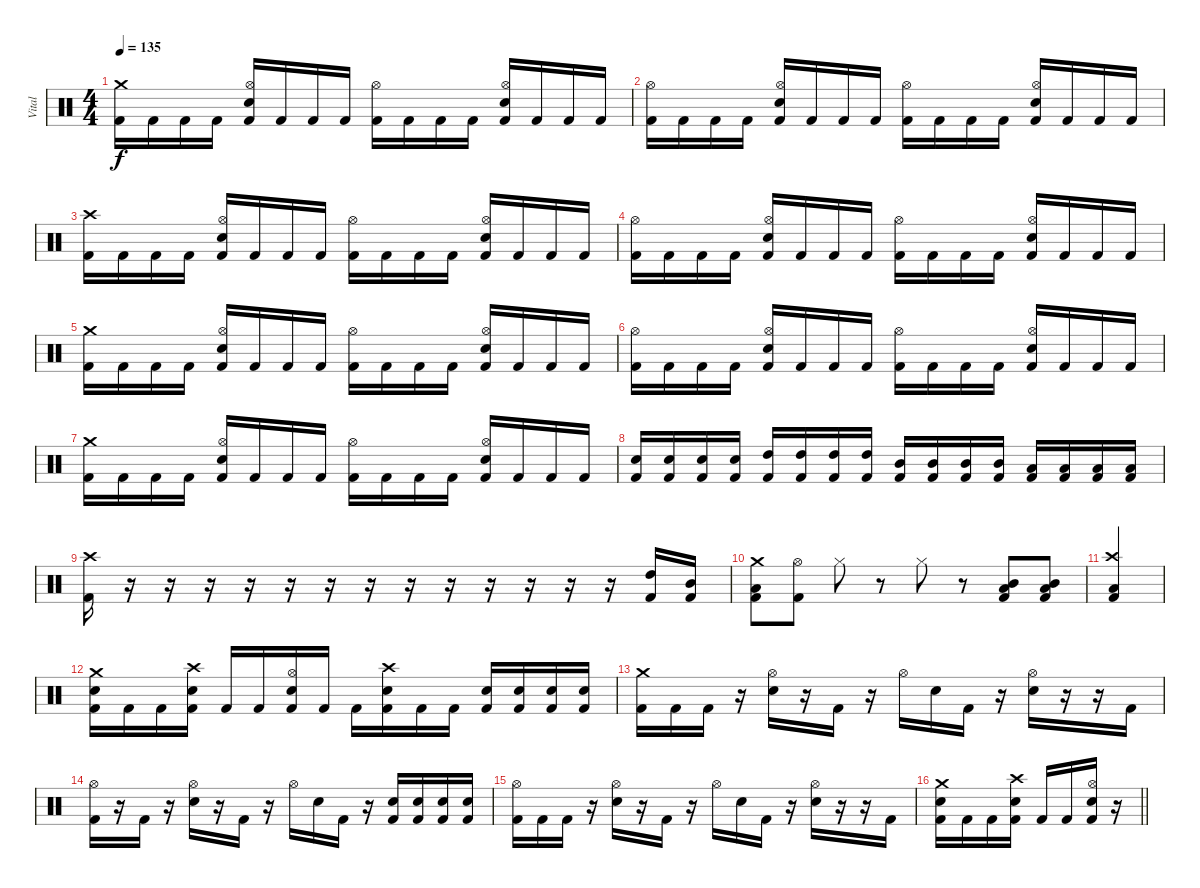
\track ("Vital" "Vital") {instrument percussion}
\staff {score}
\articulation defaults
\ts (4 4)
\tempo 135
\clef neutral
\ks c
("Crash medium (hit)" "Kick (hit) 2").16{dy f} "Kick (hit) 2".16 "Kick (hit) 2".16 "Kick (hit) 2".16 ("Hi-Hat (open)" "Snare (hit) 2" "Kick (hit) 2").16 "Kick (hit) 2".16 "Kick (hit) 2".16 "Kick (hit) 2".16 ("Hi-Hat (open)" "Kick (hit) 2").16 "Kick (hit) 2".16 "Kick (hit) 2".16 "Kick (hit) 2".16 ("Hi-Hat (open)" "Snare (hit) 2" "Kick (hit) 2").16 "Kick (hit) 2".16 "Kick (hit) 2".16 "Kick (hit) 2".16 |
("Hi-Hat (open)" "Kick (hit) 2").16 "Kick (hit) 2".16 "Kick (hit) 2".16 "Kick (hit) 2".16 ("Hi-Hat (open)" "Snare (hit) 2" "Kick (hit) 2").16 "Kick (hit) 2".16 "Kick (hit) 2".16 "Kick (hit) 2".16 ("Hi-Hat (open)" "Kick (hit) 2").16 "Kick (hit) 2".16 "Kick (hit) 2".16 "Kick (hit) 2".16 ("Hi-Hat (open)" "Snare (hit) 2" "Kick (hit) 2").16 "Kick (hit) 2".16 "Kick (hit) 2".16 "Kick (hit) 2".16 |
("Crash high (hit)" "Kick (hit) 2").16 "Kick (hit) 2".16 "Kick (hit) 2".16 "Kick (hit) 2".16 ("Hi-Hat (open)" "Snare (hit) 2" "Kick (hit) 2").16 "Kick (hit) 2".16 "Kick (hit) 2".16 "Kick (hit) 2".16 ("Hi-Hat (open)" "Kick (hit) 2").16 "Kick (hit) 2".16 "Kick (hit) 2".16 "Kick (hit) 2".16 ("Hi-Hat (open)" "Snare (hit) 2" "Kick (hit) 2").16 "Kick (hit) 2".16 "Kick (hit) 2".16 "Kick (hit) 2".16 |
("Hi-Hat (open)" "Kick (hit) 2").16 "Kick (hit) 2".16 "Kick (hit) 2".16 "Kick (hit) 2".16 ("Hi-Hat (open)" "Snare (hit) 2" "Kick (hit) 2").16 "Kick (hit) 2".16 "Kick (hit) 2".16 "Kick (hit) 2".16 ("Hi-Hat (open)" "Kick (hit) 2").16 "Kick (hit) 2".16 "Kick (hit) 2".16 "Kick (hit) 2".16 ("Hi-Hat (open)" "Snare (hit) 2" "Kick (hit) 2").16 "Kick (hit) 2".16 "Kick (hit) 2".16 "Kick (hit) 2".16 |
("Crash medium (hit)" "Kick (hit) 2").16 "Kick (hit) 2".16 "Kick (hit) 2".16 "Kick (hit) 2".16 ("Hi-Hat (open)" "Snare (hit) 2" "Kick (hit) 2").16 "Kick (hit) 2".16 "Kick (hit) 2".16 "Kick (hit) 2".16 ("Hi-Hat (open)" "Kick (hit) 2").16 "Kick (hit) 2".16 "Kick (hit) 2".16 "Kick (hit) 2".16 ("Hi-Hat (open)" "Snare (hit) 2" "Kick (hit) 2").16 "Kick (hit) 2".16 "Kick (hit) 2".16 "Kick (hit) 2".16 |
("Hi-Hat (open)" "Kick (hit) 2").16 "Kick (hit) 2".16 "Kick (hit) 2".16 "Kick (hit) 2".16 ("Hi-Hat (open)" "Snare (hit) 2" "Kick (hit) 2").16 "Kick (hit) 2".16 "Kick (hit) 2".16 "Kick (hit) 2".16 ("Hi-Hat (open)" "Kick (hit) 2").16 "Kick (hit) 2".16 "Kick (hit) 2".16 "Kick (hit) 2".16 ("Hi-Hat (open)" "Snare (hit) 2" "Kick (hit) 2").16 "Kick (hit) 2".16 "Kick (hit) 2".16 "Kick (hit) 2".16 |
("Crash medium (hit)" "Kick (hit) 2").16 "Kick (hit) 2".16 "Kick (hit) 2".16 "Kick (hit) 2".16 ("Hi-Hat (open)" "Snare (hit) 2" "Kick (hit) 2").16 "Kick (hit) 2".16 "Kick (hit) 2".16 "Kick (hit) 2".16 ("Hi-Hat (open)" "Kick (hit) 2").16 "Kick (hit) 2".16 "Kick (hit) 2".16 "Kick (hit) 2".16 ("Hi-Hat (open)" "Snare (hit) 2" "Kick (hit) 2").16 "Kick (hit) 2".16 "Kick (hit) 2".16 "Kick (hit) 2".16 |
("Snare (hit) 2" "Kick (hit) 2").16 ("Snare (hit) 2" "Kick (hit) 2").16 ("Snare (hit) 2" "Kick (hit) 2").16 ("Snare (hit) 2" "Kick (hit) 2").16 ("High Tom (hit)" "Kick (hit) 2").16 ("High Tom (hit)" "Kick (hit) 2").16 ("High Tom (hit)" "Kick (hit) 2").16 ("High Tom (hit)" "Kick (hit) 2").16 ("Mid Tom (hit)" "Kick (hit) 2").16 ("Mid Tom (hit)" "Kick (hit) 2").16 ("Mid Tom (hit)" "Kick (hit) 2").16 ("Mid Tom (hit)" "Kick (hit) 2").16 ("Low Tom (hit)" "Kick (hit) 2").16 ("Low Tom (hit)" "Kick (hit) 2").16 ("Low Tom (hit)" "Kick (hit) 2").16 ("Low Tom (hit)" "Kick (hit) 2").16 |
("Crash high (hit)" "Kick (hit) 2").16 r.16 r.16 r.16 r.16 r.16 r.16 r.16 r.16 r.16 r.16 r.16 r.16 r.16 ("High Tom (hit)" "Kick (hit) 2").16 ("Mid Tom (hit)" "Kick (hit) 2").16 |
("Crash medium (hit)" "Low Tom (hit)" "Kick (hit) 2").8 ("Hi-Hat (open)" "Kick (hit) 2").8 "Hi-Hat (closed)".8 r.8 "Hi-Hat (closed)".8 r.8 ("Mid Tom (hit)" "Low Tom (hit)" "Kick (hit) 2").8 ("Mid Tom (hit)" "Low Tom (hit)" "Kick (hit) 2").8 |
("Crash high (hit)" "Low Tom (hit)" "Kick (hit) 2").4 |
("Crash medium (hit)" "Snare (hit) 2" "Kick (hit) 2").16 "Kick (hit) 2".16 "Kick (hit) 2".16 ("Crash high (hit)" "Snare (hit) 2" "Kick (hit) 2").16 "Kick (hit) 2".16 "Kick (hit) 2".16 ("Hi-Hat (open)" "Snare (hit) 2" "Kick (hit) 2").16 "Kick (hit) 2".16 "Kick (hit) 2".16 ("Crash high (hit)" "Snare (hit) 2" "Kick (hit) 2").16 "Kick (hit) 2".16 "Kick (hit) 2".16 ("Snare (hit) 2" "Kick (hit) 2").16 ("Snare (hit) 2" "Kick (hit) 2").16 ("Snare (hit) 2" "Kick (hit) 2").16 ("Snare (hit) 2" "Kick (hit) 2").16 |
("Crash medium (hit)" "Kick (hit) 2").16 "Kick (hit) 2".16 "Kick (hit) 2".16 r.16 ("Hi-Hat (open)" "Snare (hit) 2").16 r.16 "Kick (hit) 2".16 r.16 "Hi-Hat (open)".16 "Snare (hit) 2".16 "Kick (hit) 2".16 r.16 ("Hi-Hat (open)" "Snare (hit) 2").16 r.16 r.16 "Kick (hit) 2".16 |
("Hi-Hat (open)" "Kick (hit) 2").16 r.16 "Kick (hit) 2".16 r.16 ("Hi-Hat (open)" "Snare (hit) 2").16 r.16 "Kick (hit) 2".16 r.16 "Hi-Hat (open)".16 "Snare (hit) 2".16 "Kick (hit) 2".16 r.16 ("Snare (hit) 2" "Kick (hit) 2").16 ("Snare (hit) 2" "Kick (hit) 2").16 ("Snare (hit) 2" "Kick (hit) 2").16 ("Snare (hit) 2" "Kick (hit) 2").16 |
("Hi-Hat (open)" "Kick (hit) 2").16 "Kick (hit) 2".16 "Kick (hit) 2".16 r.16 ("Hi-Hat (open)" "Snare (hit) 2").16 r.16 "Kick (hit) 2".16 r.16 "Hi-Hat (open)".16 "Snare (hit) 2".16 "Kick (hit) 2".16 r.16 ("Hi-Hat (open)" "Snare (hit) 2").16 r.16 r.16 "Kick (hit) 2".16 |
\barLineRight lightlight
("Crash medium (hit)" "Snare (hit) 2" "Kick (hit) 2").16 "Kick (hit) 2".16 "Kick (hit) 2".16 ("Crash high (hit)" "Snare (hit) 2" "Kick (hit) 2").16 "Kick (hit) 2".16 "Kick (hit) 2".16 ("Hi-Hat (open)" "Snare (hit) 2" "Kick (hit) 2").16 r.16
